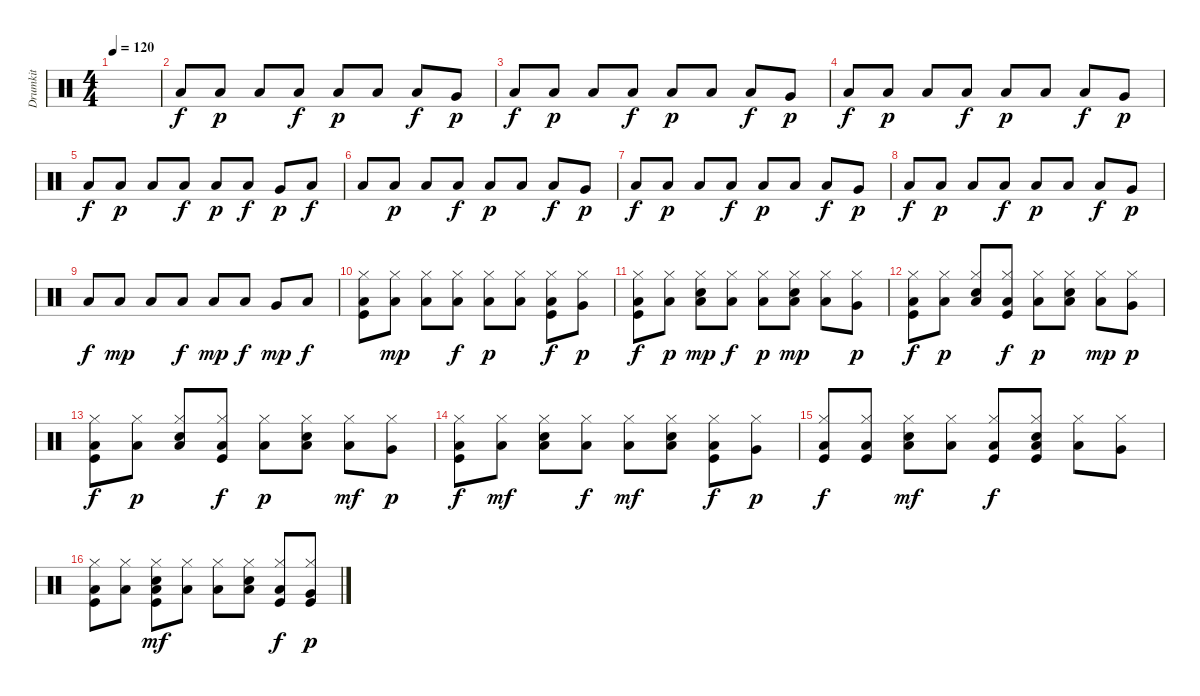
\track ("Drumkit" "Drumkit") {instrument percussion}
\staff {score}
\articulation defaults
\ts (4 4)
\tempo 120
\clef neutral
\ks c
|
"Low Tom (hit)".8 "Low Tom (hit)".8{dy p} "Low Tom (hit)".8 "Low Floor Tom (hit)".8{dy f} "Low Tom (hit)".8{dy p} "Low Tom (hit)".8 "Low Floor Tom (hit)".8{dy f} "Very Low Tom (hit)".8{dy p} |
"Low Tom (hit)".8{dy f} "Low Tom (hit)".8{dy p} "Low Tom (hit)".8 "Low Floor Tom (hit)".8{dy f} "Low Tom (hit)".8{dy p} "Low Tom (hit)".8 "Low Tom (hit)".8{dy f} "Very Low Tom (hit)".8{dy p} |
"Low Tom (hit)".8{dy f} "Low Tom (hit)".8{dy p} "Low Tom (hit)".8 "Low Tom (hit)".8{dy f} "Low Tom (hit)".8{dy p} "Low Tom (hit)".8 "Low Tom (hit)".8{dy f} "Very Low Tom (hit)".8{dy p} |
"Low Tom (hit)".8{dy f} "Low Tom (hit)".8{dy p} "Low Tom (hit)".8 "Low Floor Tom (hit)".8{dy f} "Low Tom (hit)".8{dy p} "Low Tom (hit)".8{dy f} "Very Low Tom (hit)".8{dy p} "Low Tom (hit)".8{dy f} |
"Low Tom (hit)".8 "Low Tom (hit)".8{dy p} "Low Tom (hit)".8 "Low Floor Tom (hit)".8{dy f} "Low Tom (hit)".8{dy p} "Low Tom (hit)".8 "Low Floor Tom (hit)".8{dy f} "Very Low Tom (hit)".8{dy p} |
"Low Tom (hit)".8{dy f} "Low Tom (hit)".8{dy p} "Low Tom (hit)".8 "Low Floor Tom (hit)".8{dy f} "Low Tom (hit)".8{dy p} "Low Tom (hit)".8 "Low Tom (hit)".8{dy f} "Very Low Tom (hit)".8{dy p} |
"Low Tom (hit)".8{dy f} "Low Tom (hit)".8{dy p} "Low Tom (hit)".8 "Low Tom (hit)".8{dy f} "Low Tom (hit)".8{dy p} "Low Tom (hit)".8 "Low Tom (hit)".8{dy f} "Very Low Tom (hit)".8{dy p} |
"Low Tom (hit)".8{dy f} "Low Tom (hit)".8{dy mp} "Low Tom (hit)".8 "Low Floor Tom (hit)".8{dy f} "Low Tom (hit)".8{dy mp} "Low Tom (hit)".8{dy f} "Very Low Tom (hit)".8{dy mp} "Low Tom (hit)".8{dy f} |
("Low Tom (hit)" "Hi-Hat (closed)" "Kick (hit)").8 ("Low Tom (hit)" "Hi-Hat (closed)").8{dy mp} ("Low Tom (hit)" "Hi-Hat (closed)").8 ("Low Floor Tom (hit)" "Hi-Hat (closed)").8{dy f} ("Low Tom (hit)" "Hi-Hat (closed)").8{dy p} ("Low Tom (hit)" "Hi-Hat (closed)").8 ("Low Floor Tom (hit)" "Hi-Hat (closed)" "Kick (hit)").8{dy f} ("Very Low Tom (hit)" "Hi-Hat (closed)").8{dy p} |
("Low Tom (hit)" "Hi-Hat (closed)" "Kick (hit)").8{dy f} ("Low Tom (hit)" "Hi-Hat (closed)").8{dy p} ("Low Tom (hit)" "Hi-Hat (closed)" "Snare (hit) 2").8{dy mp} ("Low Floor Tom (hit)" "Hi-Hat (closed)").8{dy f} ("Low Tom (hit)" "Hi-Hat (closed)").8{dy p} ("Low Tom (hit)" "Hi-Hat (closed)" "Snare (hit) 2").8{dy mp} ("Low Tom (hit)" "Hi-Hat (closed)").8 ("Very Low Tom (hit)" "Hi-Hat (closed)").8{dy p} |
("Low Tom (hit)" "Hi-Hat (closed)" "Kick (hit)").8{dy f} ("Low Tom (hit)" "Hi-Hat (closed)").8{dy p} ("Low Tom (hit)" "Hi-Hat (closed)" "Snare (hit) 2").8 ("Low Tom (hit)" "Hi-Hat (closed)" "Kick (hit)").8{dy f} ("Low Tom (hit)" "Hi-Hat (closed)").8{dy p} ("Low Tom (hit)" "Hi-Hat (closed)" "Snare (hit) 2").8 ("Low Tom (hit)" "Hi-Hat (closed)").8{dy mp} ("Very Low Tom (hit)" "Hi-Hat (closed)").8{dy p} |
("Low Tom (hit)" "Hi-Hat (closed)" "Kick (hit)").8{dy f} ("Low Tom (hit)" "Hi-Hat (closed)").8{dy p} ("Low Tom (hit)" "Hi-Hat (closed)" "Snare (hit) 2").8 ("Low Tom (hit)" "Hi-Hat (closed)" "Kick (hit)").8{dy f} ("Low Tom (hit)" "Hi-Hat (closed)").8{dy p} ("Low Tom (hit)" "Hi-Hat (closed)" "Snare (hit) 2").8 ("Low Tom (hit)" "Hi-Hat (closed)").8{dy mf} ("Very Low Tom (hit)" "Hi-Hat (closed)").8{dy p} |
("Low Tom (hit)" "Hi-Hat (closed)" "Kick (hit)").8{dy f} ("Low Tom (hit)" "Hi-Hat (closed)").8{dy mf} ("Low Tom (hit)" "Hi-Hat (closed)" "Snare (hit) 2").8 ("Low Floor Tom (hit)" "Hi-Hat (closed)").8{dy f} ("Low Tom (hit)" "Hi-Hat (closed)").8{dy mf} ("Low Tom (hit)" "Hi-Hat (closed)" "Snare (hit) 2").8 ("Low Floor Tom (hit)" "Hi-Hat (closed)" "Kick (hit)").8{dy f} ("Very Low Tom (hit)" "Hi-Hat (closed)").8{dy p} |
("Low Tom (hit)" "Hi-Hat (closed)" "Kick (hit)").8{dy f} ("Low Tom (hit)" "Hi-Hat (closed)" "Kick (hit)").8 ("Low Tom (hit)" "Hi-Hat (closed)" "Snare (hit) 2").8{dy mf} ("Low Floor Tom (hit)" "Hi-Hat (closed)").8 ("Low Tom (hit)" "Hi-Hat (closed)" "Kick (hit)").8{dy f} ("Low Tom (hit)" "Hi-Hat (closed)" "Snare (hit) 2" "Kick (hit)").8 ("Low Tom (hit)" "Hi-Hat (closed)").8 ("Very Low Tom (hit)" "Hi-Hat (closed)").8 |
("Low Tom (hit)" "Hi-Hat (closed)" "Kick (hit)").8 ("Low Tom (hit)" "Hi-Hat (closed)").8 ("Low Tom (hit)" "Hi-Hat (closed)" "Snare (hit) 2" "Kick (hit)").8{dy mf} ("Low Floor Tom (hit)" "Hi-Hat (closed)").8 ("Low Tom (hit)" "Hi-Hat (closed)").8 ("Low Tom (hit)" "Hi-Hat (closed)" "Snare (hit) 2").8 ("Low Floor Tom (hit)" "Hi-Hat (closed)" "Kick (hit)").8{dy f} ("Very Low Tom (hit)" "Hi-Hat (closed)" "Kick (hit)").8{dy p}
